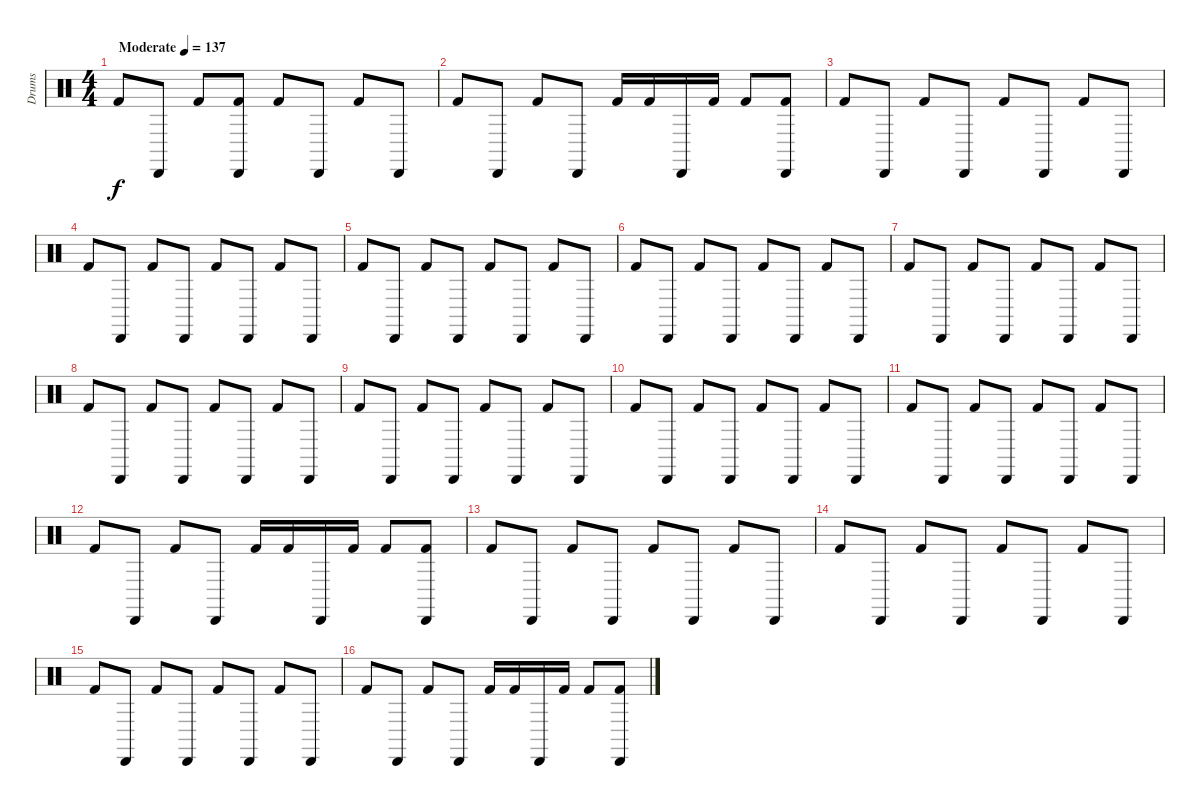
\track ("Drums" "Drums") {instrument percussion}
\staff {score}
\articulation defaults
\ts (4 4)
\tempo (137 "Moderate")
\clef neutral
\ks c "Kick (hit) 2".8{dy f} "Cabasa (hit)".8 "Kick (hit) 2".8
("Cabasa (hit)" "Kick (hit) 2").8 "Kick (hit) 2".8 "Cabasa (hit)".8 "Kick (hit) 2".8 "Cabasa (hit)".8 |
"Kick (hit) 2".8 "Cabasa (hit)".8 "Kick (hit) 2".8 "Cabasa (hit)".8 "Kick (hit) 2".16 "Kick (hit) 2".16 "Cabasa (hit)".16 "Kick (hit) 2".16 "Kick (hit) 2".8 ("Cabasa (hit)" "Kick (hit) 2").8 |
"Kick (hit) 2".8 "Cabasa (hit)".8 "Kick (hit) 2".8 "Cabasa (hit)".8 "Kick (hit) 2".8 "Cabasa (hit)".8 "Kick (hit) 2".8 "Cabasa (hit)".8 |
"Kick (hit) 2".8 "Cabasa (hit)".8 "Kick (hit) 2".8 "Cabasa (hit)".8 "Kick (hit) 2".8 "Cabasa (hit)".8 "Kick (hit) 2".8 "Cabasa (hit)".8 |
"Kick (hit) 2".8 "Cabasa (hit)".8 "Kick (hit) 2".8 "Cabasa (hit)".8 "Kick (hit) 2".8 "Cabasa (hit)".8 "Kick (hit) 2".8 "Cabasa (hit)".8 |
"Kick (hit) 2".8 "Cabasa (hit)".8 "Kick (hit) 2".8 "Cabasa (hit)".8 "Kick (hit) 2".8 "Cabasa (hit)".8 "Kick (hit) 2".8 "Cabasa (hit)".8 |
"Kick (hit) 2".8 "Cabasa (hit)".8 "Kick (hit) 2".8 "Cabasa (hit)".8 "Kick (hit) 2".8 "Cabasa (hit)".8 "Kick (hit) 2".8 "Cabasa (hit)".8 |
"Kick (hit) 2".8 "Cabasa (hit)".8 "Kick (hit) 2".8 "Cabasa (hit)".8 "Kick (hit) 2".8 "Cabasa (hit)".8 "Kick (hit) 2".8 "Cabasa (hit)".8 |
"Kick (hit) 2".8 "Cabasa (hit)".8 "Kick (hit) 2".8 "Cabasa (hit)".8 "Kick (hit) 2".8 "Cabasa (hit)".8 "Kick (hit) 2".8 "Cabasa (hit)".8 |
"Kick (hit) 2".8 "Cabasa (hit)".8 "Kick (hit) 2".8 "Cabasa (hit)".8 "Kick (hit) 2".8 "Cabasa (hit)".8 "Kick (hit) 2".8 "Cabasa (hit)".8 |
"Kick (hit) 2".8 "Cabasa (hit)".8 "Kick (hit) 2".8 "Cabasa (hit)".8 "Kick (hit) 2".8 "Cabasa (hit)".8 "Kick (hit) 2".8 "Cabasa (hit)".8 |
"Kick (hit) 2".8 "Cabasa (hit)".8 "Kick (hit) 2".8 "Cabasa (hit)".8 "Kick (hit) 2".16 "Kick (hit) 2".16 "Cabasa (hit)".16 "Kick (hit) 2".16 "Kick (hit) 2".8 ("Cabasa (hit)" "Kick (hit) 2").8 |
"Kick (hit) 2".8 "Cabasa (hit)".8 "Kick (hit) 2".8 "Cabasa (hit)".8 "Kick (hit) 2".8 "Cabasa (hit)".8 "Kick (hit) 2".8 "Cabasa (hit)".8 |
"Kick (hit) 2".8 "Cabasa (hit)".8 "Kick (hit) 2".8 "Cabasa (hit)".8 "Kick (hit) 2".8 "Cabasa (hit)".8 "Kick (hit) 2".8 "Cabasa (hit)".8 |
"Kick (hit) 2".8 "Cabasa (hit)".8 "Kick (hit) 2".8 "Cabasa (hit)".8 "Kick (hit) 2".8 "Cabasa (hit)".8 "Kick (hit) 2".8 "Cabasa (hit)".8 |
"Kick (hit) 2".8 "Cabasa (hit)".8 "Kick (hit) 2".8 "Cabasa (hit)".8 "Kick (hit) 2".16 "Kick (hit) 2".16 "Cabasa (hit)".16 "Kick (hit) 2".16 "Kick (hit) 2".8 ("Cabasa (hit)" "Kick (hit) 2").8
